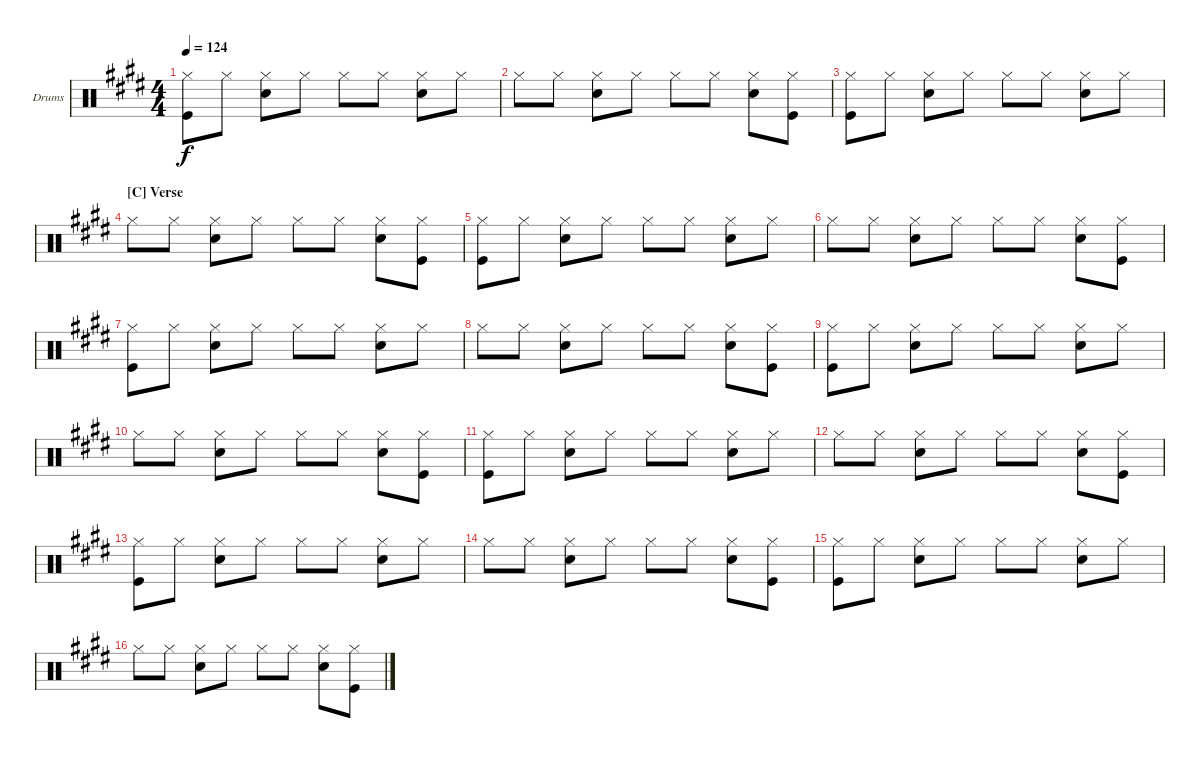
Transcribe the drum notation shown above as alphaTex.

\defaultSystemsLayout 4
\bracketExtendMode groupsimilarinstruments
\firstSystemTrackNameOrientation horizontal
\otherSystemsTrackNameOrientation horizontal
\track ("Drumkit" "Drums") {instrument percussion}
\staff {score}
\articulation defaults
\ts (4 4)
\tempo 124
\clef neutral
\scale
1.06557
\ks e
("Hi-Hat (closed)" "Kick (hit)").8{dy f} "Hi-Hat (closed)".8 ("Hi-Hat (closed)" "Snare (hit) 2").8 "Hi-Hat (closed)".8 "Hi-Hat (closed)".8 "Hi-Hat (closed)".8 ("Hi-Hat (closed)" "Snare (hit) 2").8 "Hi-Hat (closed)".8 |
\scale
0.934426 "Hi-Hat (closed)".8 "Hi-Hat (closed)".8 ("Hi-Hat (closed)" "Snare (hit) 2").8 "Hi-Hat (closed)".8 "Hi-Hat (closed)".8 "Hi-Hat (closed)".8 ("Hi-Hat (closed)" "Snare (hit) 2").8 ("Hi-Hat (closed)" "Kick (hit)").8 |
\scale
1.06557 ("Hi-Hat (closed)" "Kick (hit)").8 "Hi-Hat (closed)".8 ("Hi-Hat (closed)" "Snare (hit) 2").8 "Hi-Hat (closed)".8 "Hi-Hat (closed)".8 "Hi-Hat (closed)".8 ("Hi-Hat (closed)" "Snare (hit) 2").8 "Hi-Hat (closed)".8 |
\section ("C" "Verse")
\scale
0.934426 "Hi-Hat (closed)".8 "Hi-Hat (closed)".8 ("Hi-Hat (closed)" "Snare (hit) 2").8 "Hi-Hat (closed)".8 "Hi-Hat (closed)".8 "Hi-Hat (closed)".8 ("Hi-Hat (closed)" "Snare (hit) 2").8 ("Hi-Hat (closed)" "Kick (hit)").8 |
\scale
1.06557 ("Hi-Hat (closed)" "Kick (hit)").8 "Hi-Hat (closed)".8 ("Hi-Hat (closed)" "Snare (hit) 2").8 "Hi-Hat (closed)".8 "Hi-Hat (closed)".8 "Hi-Hat (closed)".8 ("Hi-Hat (closed)" "Snare (hit) 2").8 "Hi-Hat (closed)".8 |
\scale
0.934426 "Hi-Hat (closed)".8 "Hi-Hat (closed)".8 ("Hi-Hat (closed)" "Snare (hit) 2").8 "Hi-Hat (closed)".8 "Hi-Hat (closed)".8 "Hi-Hat (closed)".8 ("Hi-Hat (closed)" "Snare (hit) 2").8 ("Hi-Hat (closed)" "Kick (hit)").8 |
\scale
1.06557 ("Hi-Hat (closed)" "Kick (hit)").8 "Hi-Hat (closed)".8 ("Hi-Hat (closed)" "Snare (hit) 2").8 "Hi-Hat (closed)".8 "Hi-Hat (closed)".8 "Hi-Hat (closed)".8 ("Hi-Hat (closed)" "Snare (hit) 2").8 "Hi-Hat (closed)".8 |
\scale
0.934426 "Hi-Hat (closed)".8 "Hi-Hat (closed)".8 ("Hi-Hat (closed)" "Snare (hit) 2").8 "Hi-Hat (closed)".8 "Hi-Hat (closed)".8 "Hi-Hat (closed)".8 ("Hi-Hat (closed)" "Snare (hit) 2").8 ("Hi-Hat (closed)" "Kick (hit)").8 |
\scale
1.06557 ("Hi-Hat (closed)" "Kick (hit)").8 "Hi-Hat (closed)".8 ("Hi-Hat (closed)" "Snare (hit) 2").8 "Hi-Hat (closed)".8 "Hi-Hat (closed)".8 "Hi-Hat (closed)".8 ("Hi-Hat (closed)" "Snare (hit) 2").8 "Hi-Hat (closed)".8 |
\scale
0.934426 "Hi-Hat (closed)".8 "Hi-Hat (closed)".8 ("Hi-Hat (closed)" "Snare (hit) 2").8 "Hi-Hat (closed)".8 "Hi-Hat (closed)".8 "Hi-Hat (closed)".8 ("Hi-Hat (closed)" "Snare (hit) 2").8 ("Hi-Hat (closed)" "Kick (hit)").8 |
\scale
1.06557 ("Hi-Hat (closed)" "Kick (hit)").8 "Hi-Hat (closed)".8 ("Hi-Hat (closed)" "Snare (hit) 2").8 "Hi-Hat (closed)".8 "Hi-Hat (closed)".8 "Hi-Hat (closed)".8 ("Hi-Hat (closed)" "Snare (hit) 2").8 "Hi-Hat (closed)".8 |
\scale
0.934426 "Hi-Hat (closed)".8 "Hi-Hat (closed)".8 ("Hi-Hat (closed)" "Snare (hit) 2").8 "Hi-Hat (closed)".8 "Hi-Hat (closed)".8 "Hi-Hat (closed)".8 ("Hi-Hat (closed)" "Snare (hit) 2").8 ("Hi-Hat (closed)" "Kick (hit)").8 |
\scale
1.06557 ("Hi-Hat (closed)" "Kick (hit)").8 "Hi-Hat (closed)".8 ("Hi-Hat (closed)" "Snare (hit) 2").8 "Hi-Hat (closed)".8 "Hi-Hat (closed)".8 "Hi-Hat (closed)".8 ("Hi-Hat (closed)" "Snare (hit) 2").8 "Hi-Hat (closed)".8 |
\scale
0.934426 "Hi-Hat (closed)".8 "Hi-Hat (closed)".8 ("Hi-Hat (closed)" "Snare (hit) 2").8 "Hi-Hat (closed)".8 "Hi-Hat (closed)".8 "Hi-Hat (closed)".8 ("Hi-Hat (closed)" "Snare (hit) 2").8 ("Hi-Hat (closed)" "Kick (hit)").8 |
\scale
1.06557 ("Hi-Hat (closed)" "Kick (hit)").8 "Hi-Hat (closed)".8 ("Hi-Hat (closed)" "Snare (hit) 2").8 "Hi-Hat (closed)".8 "Hi-Hat (closed)".8 "Hi-Hat (closed)".8 ("Hi-Hat (closed)" "Snare (hit) 2").8 "Hi-Hat (closed)".8 |
\scale
0.934426 "Hi-Hat (closed)".8 "Hi-Hat (closed)".8 ("Hi-Hat (closed)" "Snare (hit) 2").8 "Hi-Hat (closed)".8 "Hi-Hat (closed)".8 "Hi-Hat (closed)".8 ("Hi-Hat (closed)" "Snare (hit) 2").8 ("Hi-Hat (closed)" "Kick (hit)").8
